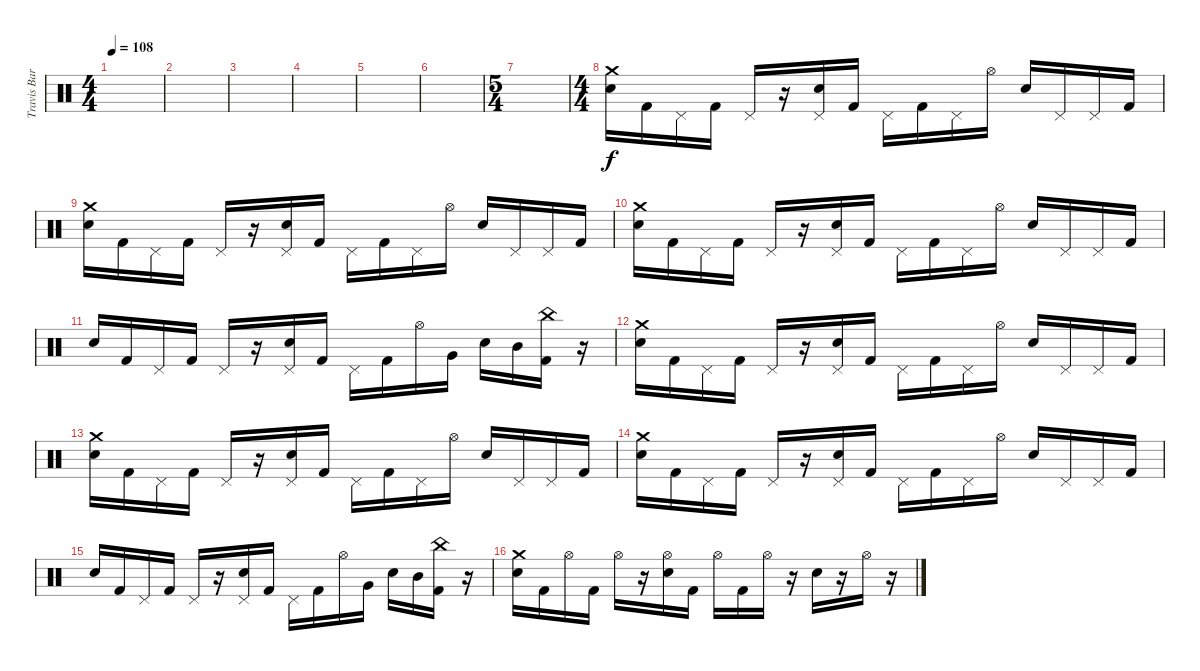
\track ("Travis Barker" "Travis Bar") {instrument percussion}
\staff {score}
\articulation defaults
\ts (4 4)
\tempo 108
\clef neutral
\ks c
|
|
|
|
|
|
\ts (5 4)
|
\ts (4 4)
("Crash medium (hit)" "Snare (hit) 2").16 "Kick (hit) 2".16 "Pedal Hi-Hat (hit)".16 "Kick (hit) 2".16 "Pedal Hi-Hat (hit)".16 r.16 ("Pedal Hi-Hat (hit)" "Snare (hit) 2").16 "Kick (hit) 2".16 "Pedal Hi-Hat (hit)".16 "Kick (hit) 2".16 "Pedal Hi-Hat (hit)".16 "Hi-Hat (open)".16 "Snare (hit) 2".16 "Pedal Hi-Hat (hit)".16 "Pedal Hi-Hat (hit)".16 "Kick (hit) 2".16 |
("Crash medium (hit)" "Snare (hit) 2").16 "Kick (hit) 2".16 "Pedal Hi-Hat (hit)".16 "Kick (hit) 2".16 "Pedal Hi-Hat (hit)".16 r.16 ("Pedal Hi-Hat (hit)" "Snare (hit) 2").16 "Kick (hit) 2".16 "Pedal Hi-Hat (hit)".16 "Kick (hit) 2".16 "Pedal Hi-Hat (hit)".16 "Hi-Hat (open)".16 "Snare (hit) 2".16 "Pedal Hi-Hat (hit)".16 "Pedal Hi-Hat (hit)".16 "Kick (hit) 2".16 |
("Crash medium (hit)" "Snare (hit) 2").16 "Kick (hit) 2".16 "Pedal Hi-Hat (hit)".16 "Kick (hit) 2".16 "Pedal Hi-Hat (hit)".16 r.16 ("Pedal Hi-Hat (hit)" "Snare (hit) 2").16 "Kick (hit) 2".16 "Pedal Hi-Hat (hit)".16 "Kick (hit) 2".16 "Pedal Hi-Hat (hit)".16 "Hi-Hat (open)".16 "Snare (hit) 2".16 "Pedal Hi-Hat (hit)".16 "Pedal Hi-Hat (hit)".16 "Kick (hit) 2".16 |
"Snare (hit) 2".16 "Kick (hit) 2".16 "Pedal Hi-Hat (hit)".16 "Kick (hit) 2".16 "Pedal Hi-Hat (hit)".16 r.16 ("Pedal Hi-Hat (hit)" "Snare (hit) 2").16 "Kick (hit) 2".16 "Pedal Hi-Hat (hit)".16 "Kick (hit) 2".16 "Hi-Hat (open)".16 "Very Low Tom (hit)".16 "Snare (hit) 2".16 "Mid Tom (hit)".16 ("China (hit)" "Kick (hit) 2").16 r.16 |
("Crash medium (hit)" "Snare (hit) 2").16 "Kick (hit) 2".16 "Pedal Hi-Hat (hit)".16 "Kick (hit) 2".16 "Pedal Hi-Hat (hit)".16 r.16 ("Pedal Hi-Hat (hit)" "Snare (hit) 2").16 "Kick (hit) 2".16 "Pedal Hi-Hat (hit)".16 "Kick (hit) 2".16 "Pedal Hi-Hat (hit)".16 "Hi-Hat (open)".16 "Snare (hit) 2".16 "Pedal Hi-Hat (hit)".16 "Pedal Hi-Hat (hit)".16 "Kick (hit) 2".16 |
("Crash medium (hit)" "Snare (hit) 2").16 "Kick (hit) 2".16 "Pedal Hi-Hat (hit)".16 "Kick (hit) 2".16 "Pedal Hi-Hat (hit)".16 r.16 ("Pedal Hi-Hat (hit)" "Snare (hit) 2").16 "Kick (hit) 2".16 "Pedal Hi-Hat (hit)".16 "Kick (hit) 2".16 "Pedal Hi-Hat (hit)".16 "Hi-Hat (open)".16 "Snare (hit) 2".16 "Pedal Hi-Hat (hit)".16 "Pedal Hi-Hat (hit)".16 "Kick (hit) 2".16 |
("Crash medium (hit)" "Snare (hit) 2").16 "Kick (hit) 2".16 "Pedal Hi-Hat (hit)".16 "Kick (hit) 2".16 "Pedal Hi-Hat (hit)".16 r.16 ("Pedal Hi-Hat (hit)" "Snare (hit) 2").16 "Kick (hit) 2".16 "Pedal Hi-Hat (hit)".16 "Kick (hit) 2".16 "Pedal Hi-Hat (hit)".16 "Hi-Hat (open)".16 "Snare (hit) 2".16 "Pedal Hi-Hat (hit)".16 "Pedal Hi-Hat (hit)".16 "Kick (hit) 2".16 |
"Snare (hit) 2".16 "Kick (hit) 2".16 "Pedal Hi-Hat (hit)".16 "Kick (hit) 2".16 "Pedal Hi-Hat (hit)".16 r.16 ("Pedal Hi-Hat (hit)" "Snare (hit) 2").16 "Kick (hit) 2".16 "Pedal Hi-Hat (hit)".16 "Kick (hit) 2".16 "Hi-Hat (open)".16 "Very Low Tom (hit)".16 "Snare (hit) 2".16 "Mid Tom (hit)".16 ("China (hit)" "Kick (hit) 2").16 r.16 |
("Crash medium (hit)" "Electric Snare (hit)").16 "Kick (hit) 2".16 "Hi-Hat (open)".16 "Kick (hit) 2".16 "Hi-Hat (open)".16 r.16 ("Hi-Hat (open)" "Electric Snare (hit)").16 "Kick (hit) 2".16 "Hi-Hat (open)".16 "Kick (hit) 2".16 "Hi-Hat (open)".16 r.16 "Snare (hit) 2".16 r.16 "Hi-Hat (open)".16 r.16
